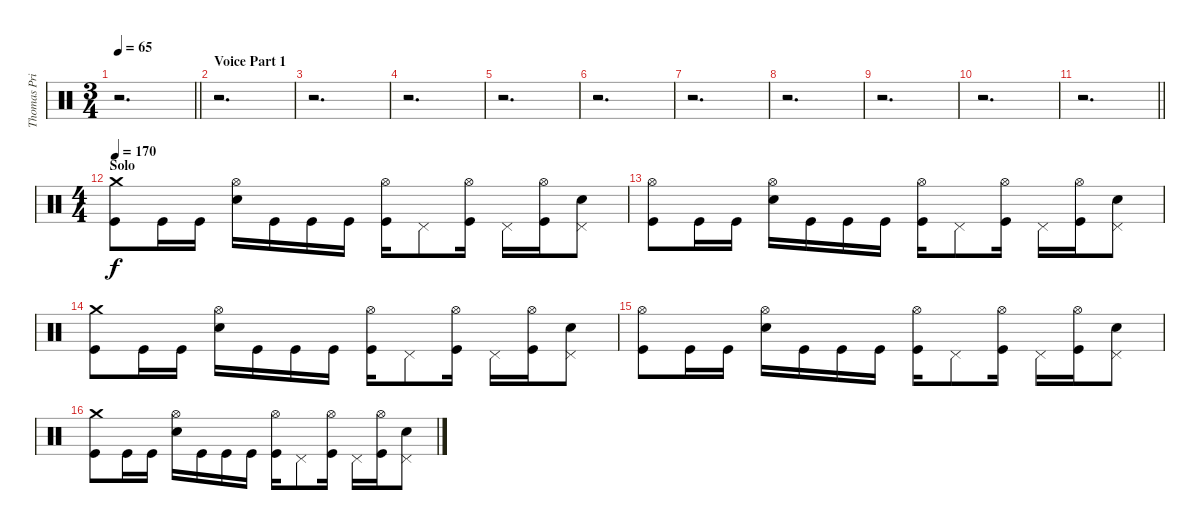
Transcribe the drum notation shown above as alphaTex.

\track ("Thomas Pridgen [Drum]" "Thomas Pri") {instrument percussion}
\staff {score}
\articulation defaults
\ts (3 4)
\tempo 65
\clef neutral
\barLineRight lightlight
\ks c
r.2{d dy f} |
\section ("" "Voice Part 1")
r.2{d} |
r.2{d} |
r.2{d} |
r.2{d} |
r.2{d} |
r.2{d} |
r.2{d} |
r.2{d} |
r.2{d} |
\barLineRight lightlight
r.2{d} |
\ts (4 4)
\section ("" "Solo   ")
\tempo 170
("Crash medium (hit)" "Kick (hit)").8 "Kick (hit)".16 "Kick (hit)".16 ("Hi-Hat (open)" "Electric Snare (hit)").16 "Kick (hit)".16 "Kick (hit)".16 "Kick (hit)".16 ("Hi-Hat (open)" "Kick (hit)").16 "Pedal Hi-Hat (hit)".8 ("Hi-Hat (open)" "Kick (hit)").16 "Pedal Hi-Hat (hit)".16 ("Hi-Hat (open)" "Kick (hit)").16 ("Pedal Hi-Hat (hit)" "Electric Snare (hit)").8 |
("Hi-Hat (open)" "Kick (hit)").8 "Kick (hit)".16 "Kick (hit)".16 ("Hi-Hat (open)" "Electric Snare (hit)").16 "Kick (hit)".16 "Kick (hit)".16 "Kick (hit)".16 ("Hi-Hat (open)" "Kick (hit)").16 "Pedal Hi-Hat (hit)".8 ("Hi-Hat (open)" "Kick (hit)").16 "Pedal Hi-Hat (hit)".16 ("Hi-Hat (open)" "Kick (hit)").16 ("Pedal Hi-Hat (hit)" "Electric Snare (hit)").8 |
("Crash medium (hit)" "Kick (hit)").8 "Kick (hit)".16 "Kick (hit)".16 ("Hi-Hat (open)" "Electric Snare (hit)").16 "Kick (hit)".16 "Kick (hit)".16 "Kick (hit)".16 ("Hi-Hat (open)" "Kick (hit)").16 "Pedal Hi-Hat (hit)".8 ("Hi-Hat (open)" "Kick (hit)").16 "Pedal Hi-Hat (hit)".16 ("Hi-Hat (open)" "Kick (hit)").16 ("Pedal Hi-Hat (hit)" "Electric Snare (hit)").8 |
("Hi-Hat (open)" "Kick (hit)").8 "Kick (hit)".16 "Kick (hit)".16 ("Hi-Hat (open)" "Electric Snare (hit)").16 "Kick (hit)".16 "Kick (hit)".16 "Kick (hit)".16 ("Hi-Hat (open)" "Kick (hit)").16 "Pedal Hi-Hat (hit)".8 ("Hi-Hat (open)" "Kick (hit)").16 "Pedal Hi-Hat (hit)".16 ("Hi-Hat (open)" "Kick (hit)").16 ("Pedal Hi-Hat (hit)" "Electric Snare (hit)").8 |
("Crash medium (hit)" "Kick (hit)").8 "Kick (hit)".16 "Kick (hit)".16 ("Hi-Hat (open)" "Electric Snare (hit)").16 "Kick (hit)".16 "Kick (hit)".16 "Kick (hit)".16 ("Hi-Hat (open)" "Kick (hit)").16 "Pedal Hi-Hat (hit)".8 ("Hi-Hat (open)" "Kick (hit)").16 "Pedal Hi-Hat (hit)".16 ("Hi-Hat (open)" "Kick (hit)").16 ("Pedal Hi-Hat (hit)" "Electric Snare (hit)").8
